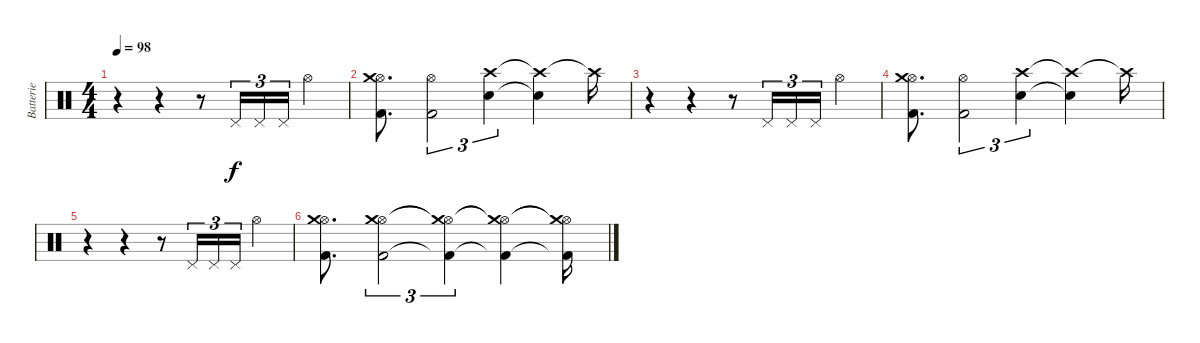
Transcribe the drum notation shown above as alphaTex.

\track ("Batterie" "Batterie") {instrument percussion}
\staff {score}
\articulation defaults
\ts (4 4)
\tempo 98
\clef neutral
\ks c
r.4{dy f} r.4 r.8 "Pedal Hi-Hat (hit)".16{tu (3 2)} "Pedal Hi-Hat (hit)".16{tu (3 2)} "Pedal Hi-Hat (hit)".16{tu (3 2)} "Hi-Hat (open)".4 |
("Hi-Hat (open)" "Crash medium (hit)" "Kick (hit) 2").8{d} ("Hi-Hat (open)" "Kick (hit) 2").2{tu (3 2)} ("Crash high (hit)" "Electric Snare (hit)").4{tu (3 2)} ("Crash high (hit)"{t} "Electric Snare (hit)"{t}).4 "Crash high (hit)"{t}.16 |
r.4 r.4 r.8 "Pedal Hi-Hat (hit)".16{tu (3 2)} "Pedal Hi-Hat (hit)".16{tu (3 2)} "Pedal Hi-Hat (hit)".16{tu (3 2)} "Hi-Hat (open)".4 |
("Hi-Hat (open)" "Crash medium (hit)" "Kick (hit) 2").8{d} ("Hi-Hat (open)" "Kick (hit) 2").2{tu (3 2)} ("Crash high (hit)" "Electric Snare (hit)").4{tu (3 2)} ("Crash high (hit)"{t} "Electric Snare (hit)"{t}).4 "Crash high (hit)"{t}.16 |
r.4 r.4 r.8 "Pedal Hi-Hat (hit)".16{tu (3 2)} "Pedal Hi-Hat (hit)".16{tu (3 2)} "Pedal Hi-Hat (hit)".16{tu (3 2)} "Hi-Hat (open)".4 |
("Hi-Hat (open)" "Crash medium (hit)" "Kick (hit) 2").8{d} ("Hi-Hat (open)" "Crash medium (hit)" "Kick (hit) 2").2{tu (3 2)} ("Hi-Hat (open)"{t} "Crash medium (hit)"{t} "Kick (hit) 2"{t}).4{tu (3 2)} ("Hi-Hat (open)"{t} "Crash medium (hit)"{t} "Kick (hit) 2"{t}).4 ("Hi-Hat (open)"{t} "Crash medium (hit)"{t} "Kick (hit) 2"{t}).16
